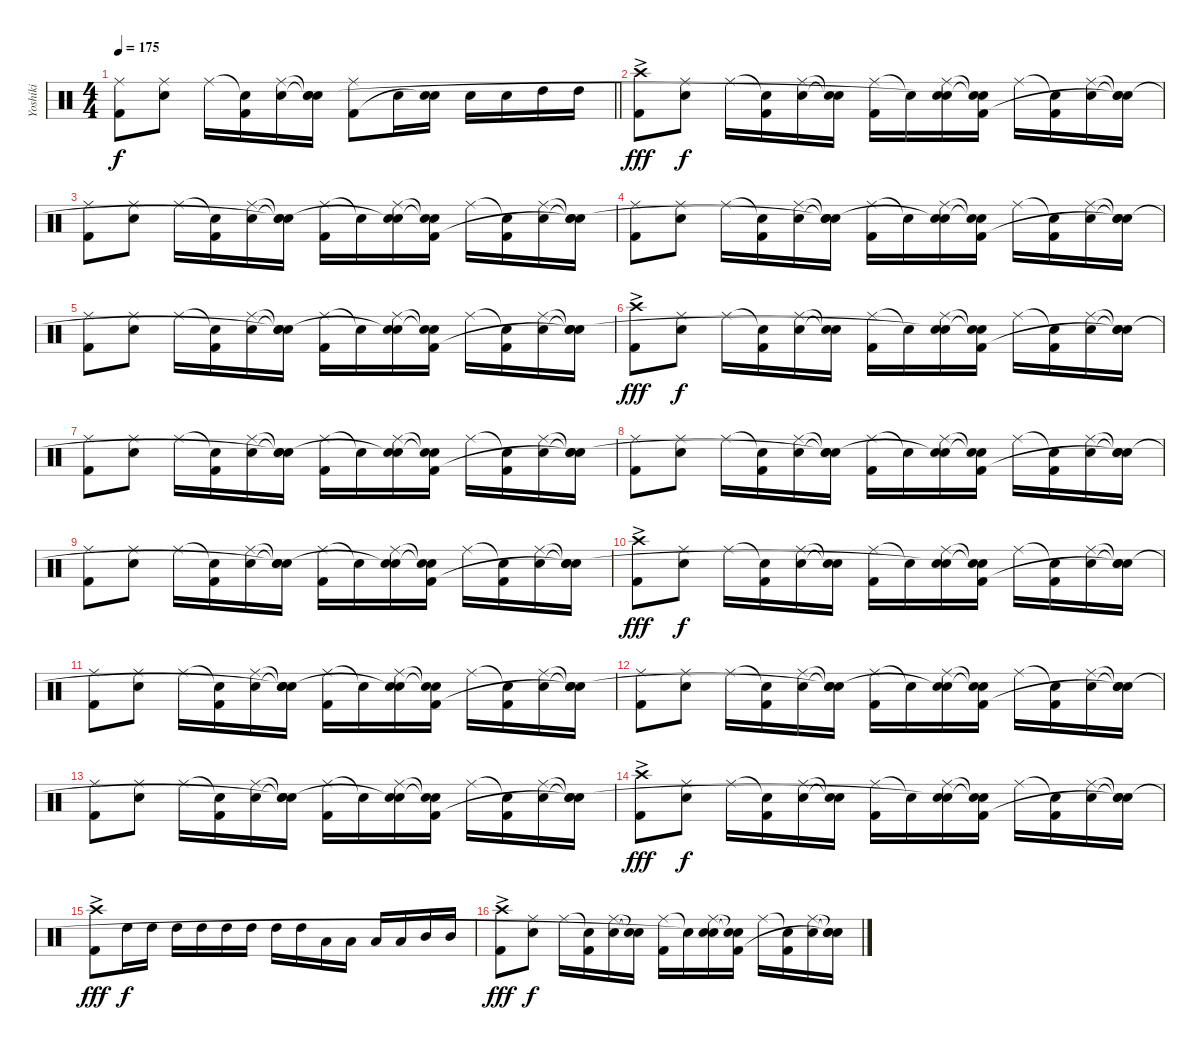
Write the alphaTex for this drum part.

\track ("Yoshiki" "Yoshiki") {instrument percussion}
\staff {score}
\articulation defaults
\ts (4 4)
\tempo 175
\clef neutral
\barLineRight lightlight
\ks c
("Ride (middle)" "Kick (hit) 2").8{dy f} ("Ride (middle)" "Snare (hit) 2").8 "Ride (middle)".16 ("Snare (hit)"{t} "Kick (hit) 2").16 ("Ride (middle)" "Snare (hit) 2").16 ("Snare (hit)"{t} "Snare (hit)"{t} "Snare (hit)"{t}).16 ("Ride (middle)" "Kick (hit) 2").8 "Snare (hit) 2".16 ("Snare (hit) 2" "Snare (hit)"{t}).16 "Snare (hit) 2".16 "Snare (hit) 2".16 "High Tom (hit)".16 "High Tom (hit)".16 |
("Crash high (hit)"{ac} "Kick (hit) 2"{ac}).8{dy fff} ("Ride (middle)" "Snare (hit) 2").8{dy f} "Ride (middle)".16 ("Snare (hit)"{t} "Kick (hit) 2").16 ("Ride (middle)" "Snare (hit) 2").16 ("Snare (hit)"{t} "Snare (hit)"{t}).16 ("Ride (middle)" "Kick (hit) 2").16 "Snare (hit)"{t}.16 ("Ride (middle)" "Snare (hit) 2" "Snare (hit)"{t}).16 ("Snare (hit)"{t} "Snare (hit)"{t} "Kick (hit) 2").16 "Ride (middle)".16 ("Snare (hit)"{t} "Kick (hit) 2").16 ("Ride (middle)" "Snare (hit) 2").16 ("Snare (hit)"{t} "Snare (hit)"{t} "Snare (hit)"{t}).16 |
("Ride (middle)" "Kick (hit) 2").8 ("Ride (middle)" "Snare (hit) 2").8 "Ride (middle)".16 ("Snare (hit)"{t} "Kick (hit) 2").16 ("Ride (middle)" "Snare (hit) 2").16 ("Snare (hit)"{t} "Snare (hit)"{t} "Snare (hit)"{t}).16 ("Ride (middle)" "Kick (hit) 2").16 "Snare (hit)"{t}.16 ("Ride (middle)" "Snare (hit) 2" "Snare (hit)"{t}).16 ("Snare (hit)"{t} "Snare (hit)"{t} "Kick (hit) 2").16 "Ride (middle)".16 ("Snare (hit)"{t} "Kick (hit) 2").16 ("Ride (middle)" "Snare (hit) 2").16 ("Snare (hit)"{t} "Snare (hit)"{t} "Snare (hit)"{t}).16 |
("Ride (middle)" "Kick (hit) 2").8 ("Ride (middle)" "Snare (hit) 2").8 "Ride (middle)".16 ("Snare (hit)"{t} "Kick (hit) 2").16 ("Ride (middle)" "Snare (hit) 2").16 ("Snare (hit)"{t} "Snare (hit)"{t} "Snare (hit)"{t}).16 ("Ride (middle)" "Kick (hit) 2").16 "Snare (hit)"{t}.16 ("Ride (middle)" "Snare (hit) 2" "Snare (hit)"{t}).16 ("Snare (hit)"{t} "Snare (hit)"{t} "Kick (hit) 2").16 "Ride (middle)".16 ("Snare (hit)"{t} "Kick (hit) 2").16 ("Ride (middle)" "Snare (hit) 2").16 ("Snare (hit)"{t} "Snare (hit)"{t} "Snare (hit)"{t}).16 |
("Ride (middle)" "Kick (hit) 2").8 ("Ride (middle)" "Snare (hit) 2").8 "Ride (middle)".16 ("Snare (hit)"{t} "Kick (hit) 2").16 ("Ride (middle)" "Snare (hit) 2").16 ("Snare (hit)"{t} "Snare (hit)"{t} "Snare (hit)"{t}).16 ("Ride (middle)" "Kick (hit) 2").16 "Snare (hit)"{t}.16 ("Ride (middle)" "Snare (hit) 2" "Snare (hit)"{t}).16 ("Snare (hit)"{t} "Snare (hit)"{t} "Kick (hit) 2").16 "Ride (middle)".16 ("Snare (hit)"{t} "Kick (hit) 2").16 ("Ride (middle)" "Snare (hit) 2").16 ("Snare (hit)"{t} "Snare (hit)"{t} "Snare (hit)"{t}).16 |
("Crash high (hit)"{ac} "Kick (hit) 2"{ac}).8{dy fff} ("Ride (middle)" "Snare (hit) 2").8{dy f} "Ride (middle)".16 ("Snare (hit)"{t} "Kick (hit) 2").16 ("Ride (middle)" "Snare (hit) 2").16 ("Snare (hit)"{t} "Snare (hit)"{t}).16 ("Ride (middle)" "Kick (hit) 2").16 "Snare (hit)"{t}.16 ("Ride (middle)" "Snare (hit) 2" "Snare (hit)"{t}).16 ("Snare (hit)"{t} "Snare (hit)"{t} "Kick (hit) 2").16 "Ride (middle)".16 ("Snare (hit)"{t} "Kick (hit) 2").16 ("Ride (middle)" "Snare (hit) 2").16 ("Snare (hit)"{t} "Snare (hit)"{t} "Snare (hit)"{t}).16 |
("Ride (middle)" "Kick (hit) 2").8 ("Ride (middle)" "Snare (hit) 2").8 "Ride (middle)".16 ("Snare (hit)"{t} "Kick (hit) 2").16 ("Ride (middle)" "Snare (hit) 2").16 ("Snare (hit)"{t} "Snare (hit)"{t} "Snare (hit)"{t}).16 ("Ride (middle)" "Kick (hit) 2").16 "Snare (hit)"{t}.16 ("Ride (middle)" "Snare (hit) 2" "Snare (hit)"{t}).16 ("Snare (hit)"{t} "Snare (hit)"{t} "Kick (hit) 2").16 "Ride (middle)".16 ("Snare (hit)"{t} "Kick (hit) 2").16 ("Ride (middle)" "Snare (hit) 2").16 ("Snare (hit)"{t} "Snare (hit)"{t} "Snare (hit)"{t}).16 |
("Ride (middle)" "Kick (hit) 2").8 ("Ride (middle)" "Snare (hit) 2").8 "Ride (middle)".16 ("Snare (hit)"{t} "Kick (hit) 2").16 ("Ride (middle)" "Snare (hit) 2").16 ("Snare (hit)"{t} "Snare (hit)"{t} "Snare (hit)"{t}).16 ("Ride (middle)" "Kick (hit) 2").16 "Snare (hit)"{t}.16 ("Ride (middle)" "Snare (hit) 2" "Snare (hit)"{t}).16 ("Snare (hit)"{t} "Snare (hit)"{t} "Kick (hit) 2").16 "Ride (middle)".16 ("Snare (hit)"{t} "Kick (hit) 2").16 ("Ride (middle)" "Snare (hit) 2").16 ("Snare (hit)"{t} "Snare (hit)"{t} "Snare (hit)"{t}).16 |
("Ride (middle)" "Kick (hit) 2").8 ("Ride (middle)" "Snare (hit) 2").8 "Ride (middle)".16 ("Snare (hit)"{t} "Kick (hit) 2").16 ("Ride (middle)" "Snare (hit) 2").16 ("Snare (hit)"{t} "Snare (hit)"{t} "Snare (hit)"{t}).16 ("Ride (middle)" "Kick (hit) 2").16 "Snare (hit)"{t}.16 ("Ride (middle)" "Snare (hit) 2" "Snare (hit)"{t}).16 ("Snare (hit)"{t} "Snare (hit)"{t} "Kick (hit) 2").16 "Ride (middle)".16 ("Snare (hit)"{t} "Kick (hit) 2").16 ("Ride (middle)" "Snare (hit) 2").16 ("Snare (hit)"{t} "Snare (hit)"{t} "Snare (hit)"{t}).16 |
("Crash high (hit)"{ac} "Kick (hit) 2"{ac}).8{dy fff} ("Ride (middle)" "Snare (hit) 2").8{dy f} "Ride (middle)".16 ("Snare (hit)"{t} "Kick (hit) 2").16 ("Ride (middle)" "Snare (hit) 2").16 ("Snare (hit)"{t} "Snare (hit)"{t}).16 ("Ride (middle)" "Kick (hit) 2").16 "Snare (hit)"{t}.16 ("Ride (middle)" "Snare (hit) 2" "Snare (hit)"{t}).16 ("Snare (hit)"{t} "Snare (hit)"{t} "Kick (hit) 2").16 "Ride (middle)".16 ("Snare (hit)"{t} "Kick (hit) 2").16 ("Ride (middle)" "Snare (hit) 2").16 ("Snare (hit)"{t} "Snare (hit)"{t} "Snare (hit)"{t}).16 |
("Ride (middle)" "Kick (hit) 2").8 ("Ride (middle)" "Snare (hit) 2").8 "Ride (middle)".16 ("Snare (hit)"{t} "Kick (hit) 2").16 ("Ride (middle)" "Snare (hit) 2").16 ("Snare (hit)"{t} "Snare (hit)"{t} "Snare (hit)"{t}).16 ("Ride (middle)" "Kick (hit) 2").16 "Snare (hit)"{t}.16 ("Ride (middle)" "Snare (hit) 2" "Snare (hit)"{t}).16 ("Snare (hit)"{t} "Snare (hit)"{t} "Kick (hit) 2").16 "Ride (middle)".16 ("Snare (hit)"{t} "Kick (hit) 2").16 ("Ride (middle)" "Snare (hit) 2").16 ("Snare (hit)"{t} "Snare (hit)"{t} "Snare (hit)"{t}).16 |
("Ride (middle)" "Kick (hit) 2").8 ("Ride (middle)" "Snare (hit) 2").8 "Ride (middle)".16 ("Snare (hit)"{t} "Kick (hit) 2").16 ("Ride (middle)" "Snare (hit) 2").16 ("Snare (hit)"{t} "Snare (hit)"{t} "Snare (hit)"{t}).16 ("Ride (middle)" "Kick (hit) 2").16 "Snare (hit)"{t}.16 ("Ride (middle)" "Snare (hit) 2" "Snare (hit)"{t}).16 ("Snare (hit)"{t} "Snare (hit)"{t} "Kick (hit) 2").16 "Ride (middle)".16 ("Snare (hit)"{t} "Kick (hit) 2").16 ("Ride (middle)" "Snare (hit) 2").16 ("Snare (hit)"{t} "Snare (hit)"{t} "Snare (hit)"{t}).16 |
("Ride (middle)" "Kick (hit) 2").8 ("Ride (middle)" "Snare (hit) 2").8 "Ride (middle)".16 ("Snare (hit)"{t} "Kick (hit) 2").16 ("Ride (middle)" "Snare (hit) 2").16 ("Snare (hit)"{t} "Snare (hit)"{t} "Snare (hit)"{t}).16 ("Ride (middle)" "Kick (hit) 2").16 "Snare (hit)"{t}.16 ("Ride (middle)" "Snare (hit) 2" "Snare (hit)"{t}).16 ("Snare (hit)"{t} "Snare (hit)"{t} "Kick (hit) 2").16 "Ride (middle)".16 ("Snare (hit)"{t} "Kick (hit) 2").16 ("Ride (middle)" "Snare (hit) 2").16 ("Snare (hit)"{t} "Snare (hit)"{t} "Snare (hit)"{t}).16 |
("Crash high (hit)"{ac} "Kick (hit) 2"{ac}).8{dy fff} ("Ride (middle)" "Snare (hit) 2").8{dy f} "Ride (middle)".16 ("Snare (hit)"{t} "Kick (hit) 2").16 ("Ride (middle)" "Snare (hit) 2").16 ("Snare (hit)"{t} "Snare (hit)"{t}).16 ("Ride (middle)" "Kick (hit) 2").16 "Snare (hit)"{t}.16 ("Ride (middle)" "Snare (hit) 2" "Snare (hit)"{t}).16 ("Snare (hit)"{t} "Snare (hit)"{t} "Kick (hit) 2").16 "Ride (middle)".16 ("Snare (hit)"{t} "Kick (hit) 2").16 ("Ride (middle)" "Snare (hit) 2").16 ("Snare (hit)"{t} "Snare (hit)"{t} "Snare (hit)"{t}).16 |
("Crash high (hit)"{ac} "Kick (hit) 2"{ac}).8{dy fff} "High Tom (hit)".16{dy f} "High Tom (hit)".16 "High Tom (hit)".16 "High Tom (hit)".16 "High Tom (hit)".16 "High Tom (hit)".16 "High Tom (hit)".16 "High Tom (hit)".16 "Low Tom (hit)".16 "Low Tom (hit)".16 "Low Tom (hit)".16 "Low Tom (hit)".16 "Mid Tom (hit)".16 "Mid Tom (hit)".16 |
("Crash high (hit)"{ac} "Kick (hit) 2"{ac}).8{dy fff} ("Ride (middle)" "Snare (hit) 2").8{dy f} "Ride (middle)".16 ("Snare (hit)"{t} "Kick (hit) 2").16 ("Ride (middle)" "Snare (hit) 2").16 ("Snare (hit)"{t} "Snare (hit)"{t}).16 ("Ride (middle)" "Kick (hit) 2").16 "Snare (hit)"{t}.16 ("Ride (middle)" "Snare (hit) 2" "Snare (hit)"{t}).16 ("Snare (hit)"{t} "Snare (hit)"{t} "Kick (hit) 2").16 "Ride (middle)".16 ("Snare (hit)"{t} "Kick (hit) 2").16 ("Ride (middle)" "Snare (hit) 2").16 ("Snare (hit)"{t} "Snare (hit)"{t} "Snare (hit)"{t}).16
